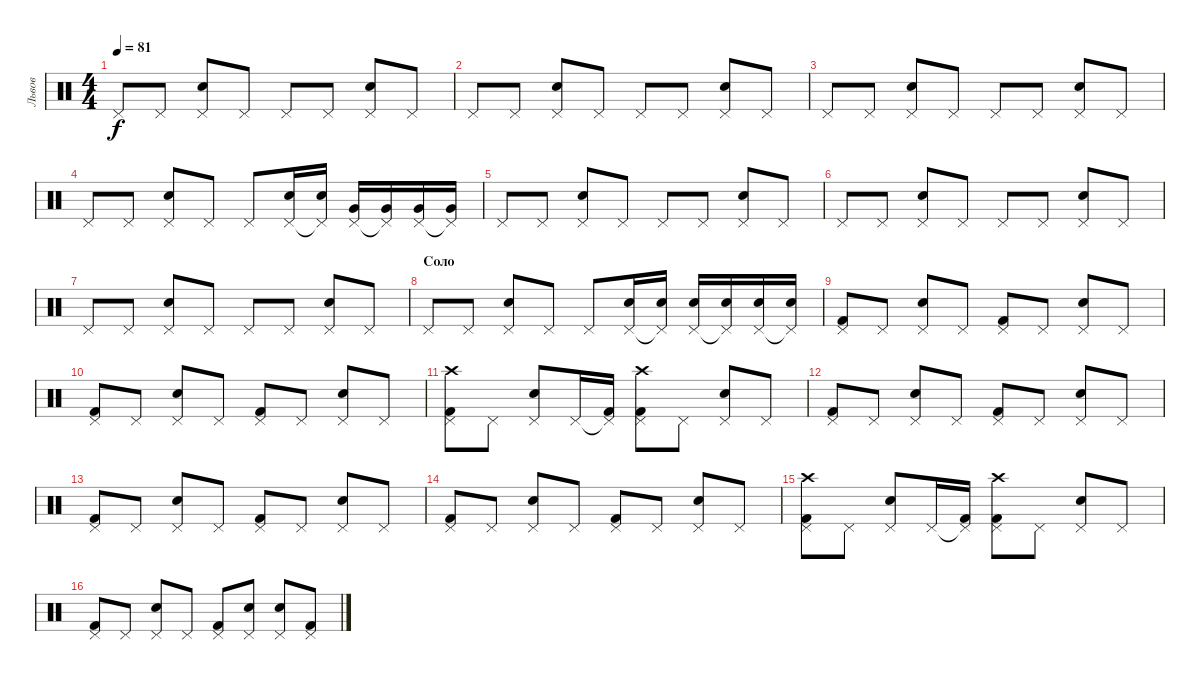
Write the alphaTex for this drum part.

\track ("Львов" "Львов") {instrument percussion}
\staff {score}
\articulation defaults
\ts (4 4)
\tempo 81
\clef neutral
\ks c "Pedal Hi-Hat (hit)".8{dy f} "Pedal Hi-Hat (hit)".8
("Pedal Hi-Hat (hit)" "Snare (hit) 2").8 "Pedal Hi-Hat (hit)".8 "Pedal Hi-Hat (hit)".8 "Pedal Hi-Hat (hit)".8 ("Pedal Hi-Hat (hit)" "Snare (hit) 2").8 "Pedal Hi-Hat (hit)".8 |
"Pedal Hi-Hat (hit)".8 "Pedal Hi-Hat (hit)".8 ("Pedal Hi-Hat (hit)" "Snare (hit) 2").8 "Pedal Hi-Hat (hit)".8 "Pedal Hi-Hat (hit)".8 "Pedal Hi-Hat (hit)".8 ("Pedal Hi-Hat (hit)" "Snare (hit) 2").8 "Pedal Hi-Hat (hit)".8 |
"Pedal Hi-Hat (hit)".8 "Pedal Hi-Hat (hit)".8 ("Pedal Hi-Hat (hit)" "Snare (hit) 2").8 "Pedal Hi-Hat (hit)".8 "Pedal Hi-Hat (hit)".8 "Pedal Hi-Hat (hit)".8 ("Pedal Hi-Hat (hit)" "Snare (hit) 2").8 "Pedal Hi-Hat (hit)".8 |
"Pedal Hi-Hat (hit)".8 "Pedal Hi-Hat (hit)".8 ("Pedal Hi-Hat (hit)" "Snare (hit) 2").8 "Pedal Hi-Hat (hit)".8 "Pedal Hi-Hat (hit)".8 ("Pedal Hi-Hat (hit)" "Electric Snare (hit)").16 ("Pedal Hi-Hat (hit)"{t} "Electric Snare (hit)").16 ("Pedal Hi-Hat (hit)" "Very Low Tom (hit)").16 ("Pedal Hi-Hat (hit)"{t} "Very Low Tom (hit)").16 ("Pedal Hi-Hat (hit)" "Very Low Tom (hit)").16 ("Pedal Hi-Hat (hit)"{t} "Very Low Tom (hit)").16 |
"Pedal Hi-Hat (hit)".8 "Pedal Hi-Hat (hit)".8 ("Pedal Hi-Hat (hit)" "Snare (hit) 2").8 "Pedal Hi-Hat (hit)".8 "Pedal Hi-Hat (hit)".8 "Pedal Hi-Hat (hit)".8 ("Pedal Hi-Hat (hit)" "Snare (hit) 2").8 "Pedal Hi-Hat (hit)".8 |
"Pedal Hi-Hat (hit)".8 "Pedal Hi-Hat (hit)".8 ("Pedal Hi-Hat (hit)" "Snare (hit) 2").8 "Pedal Hi-Hat (hit)".8 "Pedal Hi-Hat (hit)".8 "Pedal Hi-Hat (hit)".8 ("Pedal Hi-Hat (hit)" "Snare (hit) 2").8 "Pedal Hi-Hat (hit)".8 |
"Pedal Hi-Hat (hit)".8 "Pedal Hi-Hat (hit)".8 ("Pedal Hi-Hat (hit)" "Snare (hit) 2").8 "Pedal Hi-Hat (hit)".8 "Pedal Hi-Hat (hit)".8 "Pedal Hi-Hat (hit)".8 ("Pedal Hi-Hat (hit)" "Snare (hit) 2").8 "Pedal Hi-Hat (hit)".8 |
\section ("" "Соло")
"Pedal Hi-Hat (hit)".8 "Pedal Hi-Hat (hit)".8 ("Pedal Hi-Hat (hit)" "Snare (hit) 2").8 "Pedal Hi-Hat (hit)".8 "Pedal Hi-Hat (hit)".8 ("Pedal Hi-Hat (hit)" "Snare (hit) 2").16 ("Pedal Hi-Hat (hit)"{t} "Snare (hit) 2").16 ("Pedal Hi-Hat (hit)" "Electric Snare (hit)").16 ("Pedal Hi-Hat (hit)"{t} "Electric Snare (hit)").16 ("Pedal Hi-Hat (hit)" "Electric Snare (hit)").16 ("Pedal Hi-Hat (hit)"{t} "Electric Snare (hit)").16 |
("Pedal Hi-Hat (hit)" "Kick (hit) 2").8 "Pedal Hi-Hat (hit)".8 ("Pedal Hi-Hat (hit)" "Snare (hit) 2").8 "Pedal Hi-Hat (hit)".8 ("Pedal Hi-Hat (hit)" "Kick (hit) 2").8 "Pedal Hi-Hat (hit)".8 ("Pedal Hi-Hat (hit)" "Snare (hit) 2").8 "Pedal Hi-Hat (hit)".8 |
("Pedal Hi-Hat (hit)" "Kick (hit) 2").8 "Pedal Hi-Hat (hit)".8 ("Pedal Hi-Hat (hit)" "Snare (hit) 2").8 "Pedal Hi-Hat (hit)".8 ("Pedal Hi-Hat (hit)" "Kick (hit) 2").8 "Pedal Hi-Hat (hit)".8 ("Pedal Hi-Hat (hit)" "Snare (hit) 2").8 "Pedal Hi-Hat (hit)".8 |
("Pedal Hi-Hat (hit)" "Crash high (hit)" "Kick (hit) 2").8 "Pedal Hi-Hat (hit)".8 ("Pedal Hi-Hat (hit)" "Snare (hit) 2").8 "Pedal Hi-Hat (hit)".16 ("Pedal Hi-Hat (hit)"{t} "Kick (hit) 2").16 ("Pedal Hi-Hat (hit)" "Crash high (hit)" "Kick (hit) 2").8 "Pedal Hi-Hat (hit)".8 ("Pedal Hi-Hat (hit)" "Snare (hit) 2").8 "Pedal Hi-Hat (hit)".8 |
("Pedal Hi-Hat (hit)" "Kick (hit) 2").8 "Pedal Hi-Hat (hit)".8 ("Pedal Hi-Hat (hit)" "Snare (hit) 2").8 "Pedal Hi-Hat (hit)".8 ("Pedal Hi-Hat (hit)" "Kick (hit) 2").8 "Pedal Hi-Hat (hit)".8 ("Pedal Hi-Hat (hit)" "Snare (hit) 2").8 "Pedal Hi-Hat (hit)".8 |
("Pedal Hi-Hat (hit)" "Kick (hit) 2").8 "Pedal Hi-Hat (hit)".8 ("Pedal Hi-Hat (hit)" "Snare (hit) 2").8 "Pedal Hi-Hat (hit)".8 ("Pedal Hi-Hat (hit)" "Kick (hit) 2").8 "Pedal Hi-Hat (hit)".8 ("Pedal Hi-Hat (hit)" "Snare (hit) 2").8 "Pedal Hi-Hat (hit)".8 |
("Pedal Hi-Hat (hit)" "Kick (hit) 2").8 "Pedal Hi-Hat (hit)".8 ("Pedal Hi-Hat (hit)" "Snare (hit) 2").8 "Pedal Hi-Hat (hit)".8 ("Pedal Hi-Hat (hit)" "Kick (hit) 2").8 "Pedal Hi-Hat (hit)".8 ("Pedal Hi-Hat (hit)" "Snare (hit) 2").8 "Pedal Hi-Hat (hit)".8 |
("Pedal Hi-Hat (hit)" "Crash high (hit)" "Kick (hit) 2").8 "Pedal Hi-Hat (hit)".8 ("Pedal Hi-Hat (hit)" "Snare (hit) 2").8 "Pedal Hi-Hat (hit)".16 ("Pedal Hi-Hat (hit)"{t} "Kick (hit) 2").16 ("Pedal Hi-Hat (hit)" "Crash high (hit)" "Kick (hit) 2").8 "Pedal Hi-Hat (hit)".8 ("Pedal Hi-Hat (hit)" "Snare (hit) 2").8 "Pedal Hi-Hat (hit)".8 |
("Pedal Hi-Hat (hit)" "Kick (hit) 2").8 "Pedal Hi-Hat (hit)".8 ("Pedal Hi-Hat (hit)" "Snare (hit) 2").8 "Pedal Hi-Hat (hit)".8 ("Pedal Hi-Hat (hit)" "Kick (hit) 2").8 ("Pedal Hi-Hat (hit)" "Snare (hit) 2").8 ("Pedal Hi-Hat (hit)" "Snare (hit) 2").8 ("Pedal Hi-Hat (hit)" "Kick (hit) 2").8
